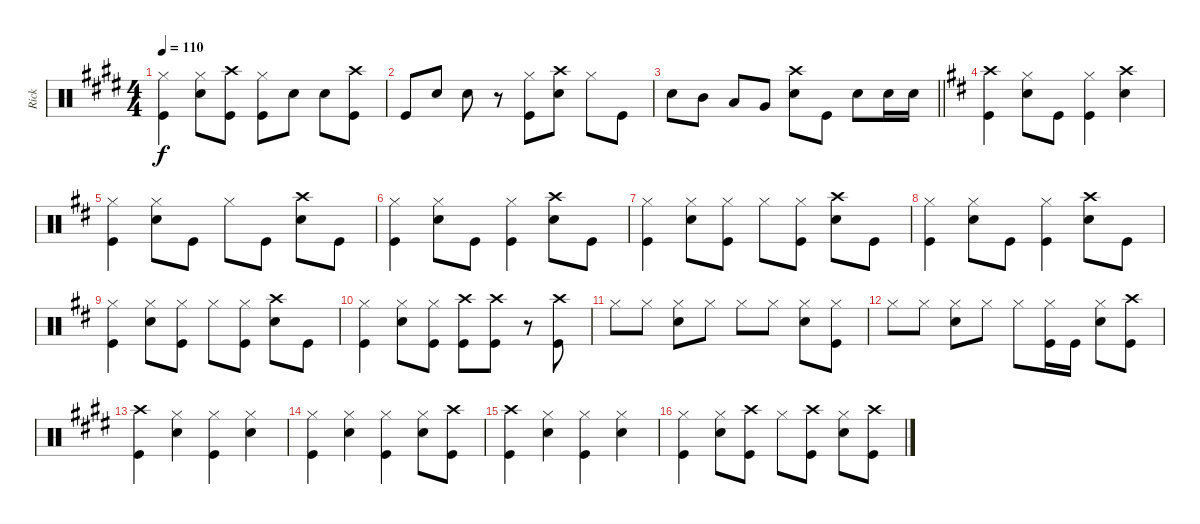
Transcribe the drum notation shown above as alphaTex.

\track ("Rick" "Rick") {instrument percussion}
\staff {score}
\articulation defaults
\ts (4 4)
\tempo 110
\clef neutral
\ks e
("Hi-Hat (closed)" "Kick (hit)").4{dy f} ("Hi-Hat (closed)" "Snare (hit) 2").8 ("Crash high (hit)" "Kick (hit)").8 ("Hi-Hat (closed)" "Kick (hit)").8 "Snare (hit) 2".8 "Snare (hit) 2".8 ("Crash high (hit)" "Kick (hit)").8 |
"Kick (hit)".8 "Snare (hit) 2".8 "Snare (hit) 2".8 r.8 ("Hi-Hat (closed)" "Kick (hit)").8 ("Crash high (hit)" "Snare (hit) 2").8 "Hi-Hat (closed)".8 "Kick (hit)".8 |
\barLineRight lightlight "Snare (hit) 2".8 "Mid Tom (hit)".8 "Low Tom (hit)".8 "Very Low Tom (hit)".8
("Crash high (hit)" "Snare (hit) 2").8 "Kick (hit)".8 "Snare (hit) 2".8 "Snare (hit) 2".16 "Snare (hit) 2".16 |
\ks d
("Crash high (hit)" "Kick (hit)").4 ("Hi-Hat (closed)" "Snare (hit) 2").8 "Kick (hit)".8 ("Hi-Hat (closed)" "Kick (hit)").4 ("Crash high (hit)" "Snare (hit) 2").4 |
("Hi-Hat (closed)" "Kick (hit)").4 ("Hi-Hat (closed)" "Snare (hit) 2").8 "Kick (hit)".8 "Hi-Hat (closed)".8 "Kick (hit)".8 ("Crash high (hit)" "Snare (hit) 2").8 "Kick (hit)".8 |
("Hi-Hat (closed)" "Kick (hit)").4 ("Hi-Hat (closed)" "Snare (hit) 2").8 "Kick (hit)".8 ("Hi-Hat (closed)" "Kick (hit)").4 ("Crash high (hit)" "Snare (hit) 2").8 "Kick (hit)".8 |
("Hi-Hat (closed)" "Kick (hit)").4 ("Hi-Hat (closed)" "Snare (hit) 2").8 ("Hi-Hat (closed)" "Kick (hit)").8 "Hi-Hat (closed)".8 ("Hi-Hat (closed)" "Kick (hit)").8 ("Crash high (hit)" "Snare (hit) 2").8 "Kick (hit)".8 |
("Hi-Hat (closed)" "Kick (hit)").4 ("Hi-Hat (closed)" "Snare (hit) 2").8 "Kick (hit)".8 ("Hi-Hat (closed)" "Kick (hit)").4 ("Crash high (hit)" "Snare (hit) 2").8 "Kick (hit)".8 |
("Hi-Hat (closed)" "Kick (hit)").4 ("Hi-Hat (closed)" "Snare (hit) 2").8 ("Hi-Hat (closed)" "Kick (hit)").8 "Hi-Hat (closed)".8 ("Hi-Hat (closed)" "Kick (hit)").8 ("Crash high (hit)" "Snare (hit) 2").8 "Kick (hit)".8 |
("Hi-Hat (closed)" "Kick (hit)").4 ("Hi-Hat (closed)" "Snare (hit) 2").8 ("Hi-Hat (closed)" "Kick (hit)").8 ("Crash high (hit)" "Kick (hit)").8 ("Crash high (hit)" "Kick (hit)").8 r.8 ("Crash high (hit)" "Kick (hit)").8 |
"Hi-Hat (closed)".8 "Hi-Hat (closed)".8 ("Hi-Hat (closed)" "Snare (hit) 2").8 "Hi-Hat (closed)".8 "Hi-Hat (closed)".8 "Hi-Hat (closed)".8 ("Hi-Hat (closed)" "Snare (hit) 2").8 ("Hi-Hat (closed)" "Kick (hit)").8 |
"Hi-Hat (closed)".8 "Hi-Hat (closed)".8 ("Hi-Hat (closed)" "Snare (hit) 2").8 "Hi-Hat (closed)".8 "Hi-Hat (closed)".8 ("Hi-Hat (closed)" "Kick (hit)").16 "Kick (hit)".16 ("Hi-Hat (closed)" "Snare (hit) 2").8 ("Crash high (hit)" "Kick (hit)").8 |
\ks c#minor
("Crash high (hit)" "Kick (hit)").4 ("Hi-Hat (closed)" "Snare (hit) 2").4 ("Hi-Hat (closed)" "Kick (hit)").4 ("Hi-Hat (closed)" "Snare (hit) 2").4 |
("Hi-Hat (closed)" "Kick (hit)").4 ("Hi-Hat (closed)" "Snare (hit) 2").4 ("Hi-Hat (closed)" "Kick (hit)").4 ("Hi-Hat (closed)" "Snare (hit) 2").8 ("Crash high (hit)" "Kick (hit)").8 |
("Crash high (hit)" "Kick (hit)").4 ("Hi-Hat (closed)" "Snare (hit) 2").4 ("Hi-Hat (closed)" "Kick (hit)").4 ("Hi-Hat (closed)" "Snare (hit) 2").4 |
("Hi-Hat (closed)" "Kick (hit)").4 ("Hi-Hat (closed)" "Snare (hit) 2").8 ("Crash high (hit)" "Kick (hit)").8 "Hi-Hat (closed)".8 ("Crash high (hit)" "Kick (hit)").8 ("Hi-Hat (closed)" "Snare (hit) 2").8 ("Crash high (hit)" "Kick (hit)").8
